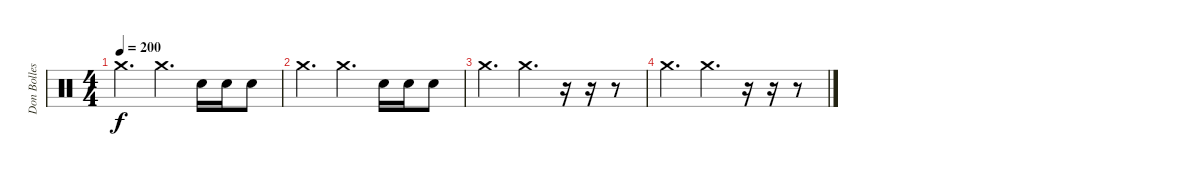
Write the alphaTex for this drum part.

\track ("Don Bolles" "Don Bolles") {instrument percussion}
\staff {score}
\articulation defaults
\ts (4 4)
\tempo 200
\clef neutral
\ks c "Crash medium (hit)".4{d dy f} "Crash medium (hit)".4{d} "Snare (hit) 2".16 "Snare (hit) 2".16 "Snare (hit) 2".8
|
"Crash medium (hit)".4{d} "Crash medium (hit)".4{d} "Snare (hit) 2".16 "Snare (hit) 2".16 "Snare (hit) 2".8 |
"Crash medium (hit)".4{d} "Crash medium (hit)".4{d} r.16 r.16 r.8 |
"Crash medium (hit)".4{d} "Crash medium (hit)".4{d} r.16 r.16 r.8
